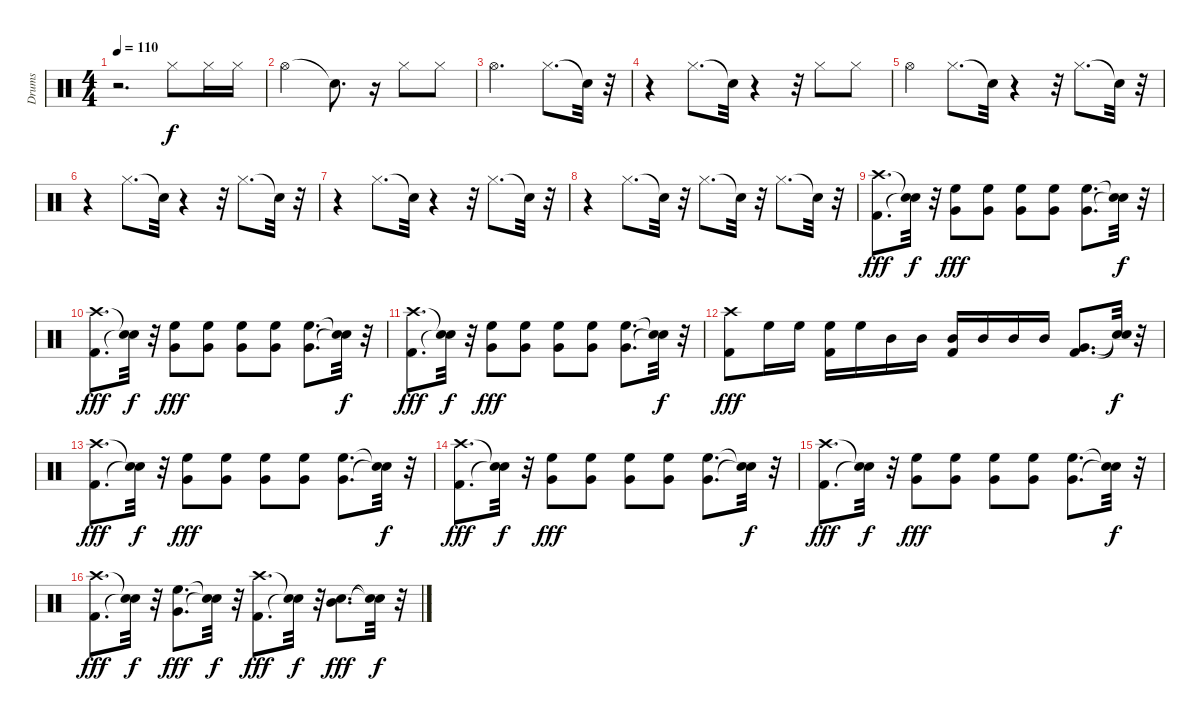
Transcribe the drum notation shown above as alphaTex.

\track ("Drums" "Drums") {instrument percussion}
\staff {score}
\articulation defaults
\ts (4 4)
\tempo 110
\clef neutral
\ks c
r.2{d dy f} "Hi-Hat (closed)".8 "Hi-Hat (closed)".16 "Hi-Hat (closed)".16 |
"Hi-Hat (open)".2 "Snare (hit)"{t}.8{d} r.16 "Hi-Hat (closed)".8 "Hi-Hat (closed)".8 |
"Hi-Hat (open)".2{d} "Hi-Hat (closed)".8{d} "Snare (hit)"{t}.32 r.32 |
r.4 "Hi-Hat (closed)".8{d} "Snare (hit)"{t}.32 r.4 r.32 "Hi-Hat (closed)".8 "Hi-Hat (closed)".8 |
"Hi-Hat (open)".4 "Hi-Hat (closed)".8{d} "Snare (hit)"{t}.32 r.4 r.32 "Hi-Hat (closed)".8{d} "Snare (hit)"{t}.32 r.32 |
r.4 "Hi-Hat (closed)".8{d} "Snare (hit)"{t}.32 r.4 r.32 "Hi-Hat (closed)".8{d} "Snare (hit)"{t}.32 r.32 |
r.4 "Hi-Hat (closed)".8{d} "Snare (hit)"{t}.32 r.4 r.32 "Hi-Hat (closed)".8{d} "Snare (hit)"{t}.32 r.32 |
r.4 "Hi-Hat (closed)".8{d} "Snare (hit)"{t}.32 r.32 "Hi-Hat (closed)".8{d} "Snare (hit)"{t}.32 r.32 "Hi-Hat (closed)".8{d} "Snare (hit)"{t}.32 r.32 |
("Kick (hit) 2" "Crash high (hit)").8{d dy fff} ("Snare (hit)"{t} "Snare (hit)"{t}).32{dy f} r.32 ("Very Low Tom (hit)" "High Floor Tom (hit)").8{dy fff} ("Very Low Tom (hit)" "High Floor Tom (hit)").8 ("Very Low Tom (hit)" "High Floor Tom (hit)").8 ("Very Low Tom (hit)" "High Floor Tom (hit)").8 ("Very Low Tom (hit)" "High Floor Tom (hit)").8{d} ("Snare (hit)"{t} "Snare (hit)"{t}).32{dy f} r.32 |
("Kick (hit) 2" "Crash high (hit)").8{d dy fff} ("Snare (hit)"{t} "Snare (hit)"{t}).32{dy f} r.32 ("Very Low Tom (hit)" "High Floor Tom (hit)").8{dy fff} ("Very Low Tom (hit)" "High Floor Tom (hit)").8 ("Very Low Tom (hit)" "High Floor Tom (hit)").8 ("Very Low Tom (hit)" "High Floor Tom (hit)").8 ("Very Low Tom (hit)" "High Floor Tom (hit)").8{d} ("Snare (hit)"{t} "Snare (hit)"{t}).32{dy f} r.32 |
("Kick (hit) 2" "Crash high (hit)").8{d dy fff} ("Snare (hit)"{t} "Snare (hit)"{t}).32{dy f} r.32 ("Very Low Tom (hit)" "High Floor Tom (hit)").8{dy fff} ("Very Low Tom (hit)" "High Floor Tom (hit)").8 ("Very Low Tom (hit)" "High Floor Tom (hit)").8 ("Very Low Tom (hit)" "High Floor Tom (hit)").8 ("Very Low Tom (hit)" "High Floor Tom (hit)").8{d} ("Snare (hit)"{t} "Snare (hit)"{t}).32{dy f} r.32 |
("Kick (hit) 2" "Crash high (hit)").8{dy fff} "High Floor Tom (hit)".16 "High Floor Tom (hit)".16 ("Kick (hit) 2" "High Floor Tom (hit)").16 "High Floor Tom (hit)".16 "Mid Tom (hit)".16 "Mid Tom (hit)".16 ("Kick (hit) 2" "Mid Tom (hit)").16 "Mid Tom (hit)".16 "Mid Tom (hit)".16 "Mid Tom (hit)".16 ("Kick (hit) 2" "Very Low Tom (hit)").8{d} ("Snare (hit)"{t} "Snare (hit)"{t}).32{dy f} r.32 |
("Kick (hit) 2" "Crash high (hit)").8{d dy fff} ("Snare (hit)"{t} "Snare (hit)"{t}).32{dy f} r.32 ("Very Low Tom (hit)" "High Floor Tom (hit)").8{dy fff} ("Very Low Tom (hit)" "High Floor Tom (hit)").8 ("Very Low Tom (hit)" "High Floor Tom (hit)").8 ("Very Low Tom (hit)" "High Floor Tom (hit)").8 ("Very Low Tom (hit)" "High Floor Tom (hit)").8{d} ("Snare (hit)"{t} "Snare (hit)"{t}).32{dy f} r.32 |
("Kick (hit) 2" "Crash high (hit)").8{d dy fff} ("Snare (hit)"{t} "Snare (hit)"{t}).32{dy f} r.32 ("Very Low Tom (hit)" "High Floor Tom (hit)").8{dy fff} ("Very Low Tom (hit)" "High Floor Tom (hit)").8 ("Very Low Tom (hit)" "High Floor Tom (hit)").8 ("Very Low Tom (hit)" "High Floor Tom (hit)").8 ("Very Low Tom (hit)" "High Floor Tom (hit)").8{d} ("Snare (hit)"{t} "Snare (hit)"{t}).32{dy f} r.32 |
("Kick (hit) 2" "Crash high (hit)").8{d dy fff} ("Snare (hit)"{t} "Snare (hit)"{t}).32{dy f} r.32 ("Very Low Tom (hit)" "High Floor Tom (hit)").8{dy fff} ("Very Low Tom (hit)" "High Floor Tom (hit)").8 ("Very Low Tom (hit)" "High Floor Tom (hit)").8 ("Very Low Tom (hit)" "High Floor Tom (hit)").8 ("Very Low Tom (hit)" "High Floor Tom (hit)").8{d} ("Snare (hit)"{t} "Snare (hit)"{t}).32{dy f} r.32 |
("Kick (hit) 2" "Crash high (hit)").8{d dy fff} ("Snare (hit)"{t} "Snare (hit)"{t}).32{dy f} r.32 ("Very Low Tom (hit)" "High Floor Tom (hit)").8{d dy fff} ("Snare (hit)"{t} "Snare (hit)"{t}).32{dy f} r.32 ("Kick (hit) 2" "Crash high (hit)").8{d dy fff} ("Snare (hit)"{t} "Snare (hit)"{t}).32{dy f} r.32 ("Snare (hit) 2" "Mid Tom (hit)").8{d dy fff} ("Snare (hit)"{t} "Snare (hit)"{t}).32{dy f} r.32
